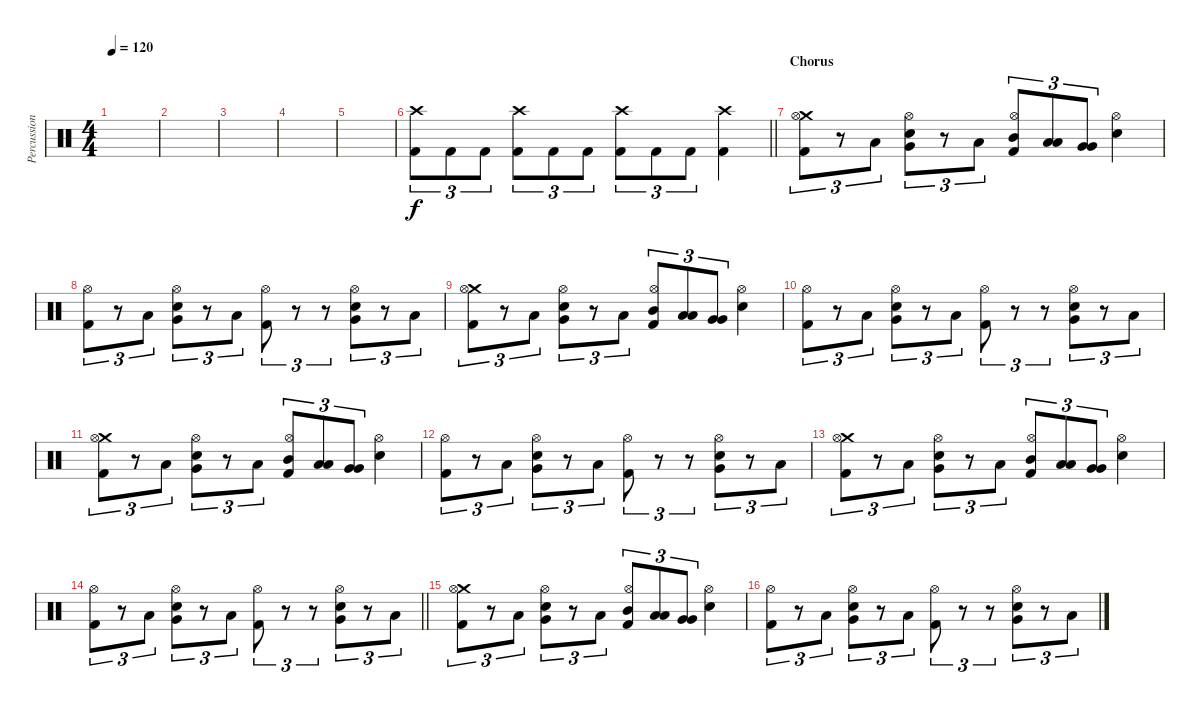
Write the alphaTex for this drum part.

\track ("Percussion" "Percussion") {instrument percussion}
\staff {score}
\articulation defaults
\ts (4 4)
\tempo 120
\clef neutral
\ks c
|
|
|
|
|
\barLineRight lightlight
("Crash high (hit)" "Kick (hit) 2").8{tu (3 2)} "Kick (hit) 2".8{tu (3 2)} "Kick (hit) 2".8{tu (3 2)} ("Crash high (hit)" "Kick (hit) 2").8{tu (3 2)} "Kick (hit) 2".8{tu (3 2)} "Kick (hit) 2".8{tu (3 2)} ("Crash high (hit)" "Kick (hit) 2").8{tu (3 2)} "Kick (hit) 2".8{tu (3 2)} "Kick (hit) 2".8{tu (3 2)} ("Crash high (hit)" "Kick (hit) 2").4 |
\section ("" "Chorus")
("Crash medium (hit)" "Hi-Hat (open)" "Kick (hit) 2").8{tu (3 2)} r.8{tu (3 2)} "Low Tom (hit)".8{tu (3 2)} ("Very Low Tom (hit)" "Hi-Hat (open)" "Snare (hit) 2").8{tu (3 2)} r.8{tu (3 2)} "Low Tom (hit)".8{tu (3 2)} ("Mid Tom (hit)" "Hi-Hat (open)" "Kick (hit) 2").8{tu (3 2)} ("Low Tom (hit)" "Low Tom (hit)").8{tu (3 2)} ("Very Low Tom (hit)" "Very Low Tom (hit)").8{tu (3 2)} ("Hi-Hat (open)" "Snare (hit) 2").4 |
("Hi-Hat (open)" "Kick (hit) 2").8{tu (3 2)} r.8{tu (3 2)} "Low Tom (hit)".8{tu (3 2)} ("Very Low Tom (hit)" "Hi-Hat (open)" "Snare (hit) 2").8{tu (3 2)} r.8{tu (3 2)} "Low Tom (hit)".8{tu (3 2)} ("Hi-Hat (open)" "Kick (hit) 2").8{tu (3 2)} r.8{tu (3 2)} r.8{tu (3 2)} ("Very Low Tom (hit)" "Hi-Hat (open)" "Snare (hit) 2").8{tu (3 2)} r.8{tu (3 2)} "Low Tom (hit)".8{tu (3 2)} |
("Crash medium (hit)" "Hi-Hat (open)" "Kick (hit) 2").8{tu (3 2)} r.8{tu (3 2)} "Low Tom (hit)".8{tu (3 2)} ("Very Low Tom (hit)" "Hi-Hat (open)" "Snare (hit) 2").8{tu (3 2)} r.8{tu (3 2)} "Low Tom (hit)".8{tu (3 2)} ("Mid Tom (hit)" "Hi-Hat (open)" "Kick (hit) 2").8{tu (3 2)} ("Low Tom (hit)" "Low Tom (hit)").8{tu (3 2)} ("Very Low Tom (hit)" "Very Low Tom (hit)").8{tu (3 2)} ("Hi-Hat (open)" "Snare (hit) 2").4 |
("Hi-Hat (open)" "Kick (hit) 2").8{tu (3 2)} r.8{tu (3 2)} "Low Tom (hit)".8{tu (3 2)} ("Very Low Tom (hit)" "Hi-Hat (open)" "Snare (hit) 2").8{tu (3 2)} r.8{tu (3 2)} "Low Tom (hit)".8{tu (3 2)} ("Hi-Hat (open)" "Kick (hit) 2").8{tu (3 2)} r.8{tu (3 2)} r.8{tu (3 2)} ("Very Low Tom (hit)" "Hi-Hat (open)" "Snare (hit) 2").8{tu (3 2)} r.8{tu (3 2)} "Low Tom (hit)".8{tu (3 2)} |
("Crash medium (hit)" "Hi-Hat (open)" "Kick (hit) 2").8{tu (3 2)} r.8{tu (3 2)} "Low Tom (hit)".8{tu (3 2)} ("Very Low Tom (hit)" "Hi-Hat (open)" "Snare (hit) 2").8{tu (3 2)} r.8{tu (3 2)} "Low Tom (hit)".8{tu (3 2)} ("Mid Tom (hit)" "Hi-Hat (open)" "Kick (hit) 2").8{tu (3 2)} ("Low Tom (hit)" "Low Tom (hit)").8{tu (3 2)} ("Very Low Tom (hit)" "Very Low Tom (hit)").8{tu (3 2)} ("Hi-Hat (open)" "Snare (hit) 2").4 |
("Hi-Hat (open)" "Kick (hit) 2").8{tu (3 2)} r.8{tu (3 2)} "Low Tom (hit)".8{tu (3 2)} ("Very Low Tom (hit)" "Hi-Hat (open)" "Snare (hit) 2").8{tu (3 2)} r.8{tu (3 2)} "Low Tom (hit)".8{tu (3 2)} ("Hi-Hat (open)" "Kick (hit) 2").8{tu (3 2)} r.8{tu (3 2)} r.8{tu (3 2)} ("Very Low Tom (hit)" "Hi-Hat (open)" "Snare (hit) 2").8{tu (3 2)} r.8{tu (3 2)} "Low Tom (hit)".8{tu (3 2)} |
("Crash medium (hit)" "Hi-Hat (open)" "Kick (hit) 2").8{tu (3 2)} r.8{tu (3 2)} "Low Tom (hit)".8{tu (3 2)} ("Very Low Tom (hit)" "Hi-Hat (open)" "Snare (hit) 2").8{tu (3 2)} r.8{tu (3 2)} "Low Tom (hit)".8{tu (3 2)} ("Mid Tom (hit)" "Hi-Hat (open)" "Kick (hit) 2").8{tu (3 2)} ("Low Tom (hit)" "Low Tom (hit)").8{tu (3 2)} ("Very Low Tom (hit)" "Very Low Tom (hit)").8{tu (3 2)} ("Hi-Hat (open)" "Snare (hit) 2").4 |
\barLineRight lightlight
("Hi-Hat (open)" "Kick (hit) 2").8{tu (3 2)} r.8{tu (3 2)} "Low Tom (hit)".8{tu (3 2)} ("Very Low Tom (hit)" "Hi-Hat (open)" "Snare (hit) 2").8{tu (3 2)} r.8{tu (3 2)} "Low Tom (hit)".8{tu (3 2)} ("Hi-Hat (open)" "Kick (hit) 2").8{tu (3 2)} r.8{tu (3 2)} r.8{tu (3 2)} ("Very Low Tom (hit)" "Hi-Hat (open)" "Snare (hit) 2").8{tu (3 2)} r.8{tu (3 2)} "Low Tom (hit)".8{tu (3 2)} |
\section ("" "")
("Crash medium (hit)" "Hi-Hat (open)" "Kick (hit) 2").8{tu (3 2)} r.8{tu (3 2)} "Low Tom (hit)".8{tu (3 2)} ("Very Low Tom (hit)" "Hi-Hat (open)" "Snare (hit) 2").8{tu (3 2)} r.8{tu (3 2)} "Low Tom (hit)".8{tu (3 2)} ("Mid Tom (hit)" "Hi-Hat (open)" "Kick (hit) 2").8{tu (3 2)} ("Low Tom (hit)" "Low Tom (hit)").8{tu (3 2)} ("Very Low Tom (hit)" "Very Low Tom (hit)").8{tu (3 2)} ("Hi-Hat (open)" "Snare (hit) 2").4 |
("Hi-Hat (open)" "Kick (hit) 2").8{tu (3 2)} r.8{tu (3 2)} "Low Tom (hit)".8{tu (3 2)} ("Very Low Tom (hit)" "Hi-Hat (open)" "Snare (hit) 2").8{tu (3 2)} r.8{tu (3 2)} "Low Tom (hit)".8{tu (3 2)} ("Hi-Hat (open)" "Kick (hit) 2").8{tu (3 2)} r.8{tu (3 2)} r.8{tu (3 2)} ("Very Low Tom (hit)" "Hi-Hat (open)" "Snare (hit) 2").8{tu (3 2)} r.8{tu (3 2)} "Low Tom (hit)".8{tu (3 2)}
